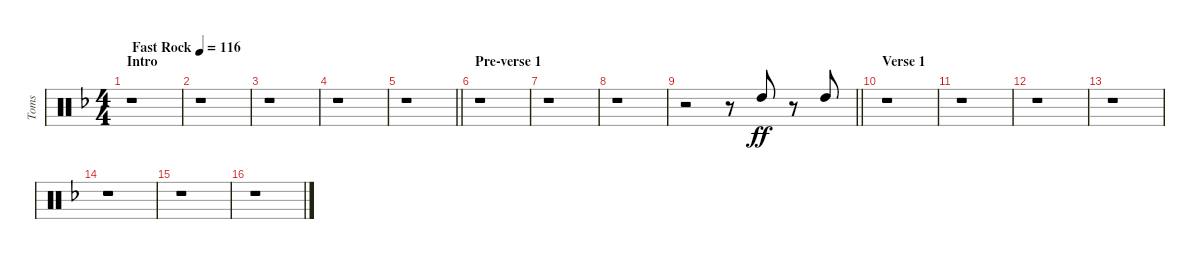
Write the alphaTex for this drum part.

\track ("Toms" "Toms") {instrument percussion}
\staff {score}
\articulation defaults
\ts (4 4)
\section ("" "Intro")
\tempo (116 "Fast Rock")
\clef neutral
\ks dminor
r.1{dy ff} |
\ks f
r.1 |
r.1 |
r.1 |
\barLineRight lightlight
r.1 |
\section ("" "Pre-verse 1")
r.1 |
r.1 |
r.1 |
\barLineRight lightlight
r.2 r.8{balance 10} "High Tom (hit)".8{beam Up} r.8 "High Tom (hit)".8{beam Up} |
\section ("" "Verse 1")
r.1 |
r.1 |
r.1 |
r.1 |
r.1 |
r.1 |
r.1
